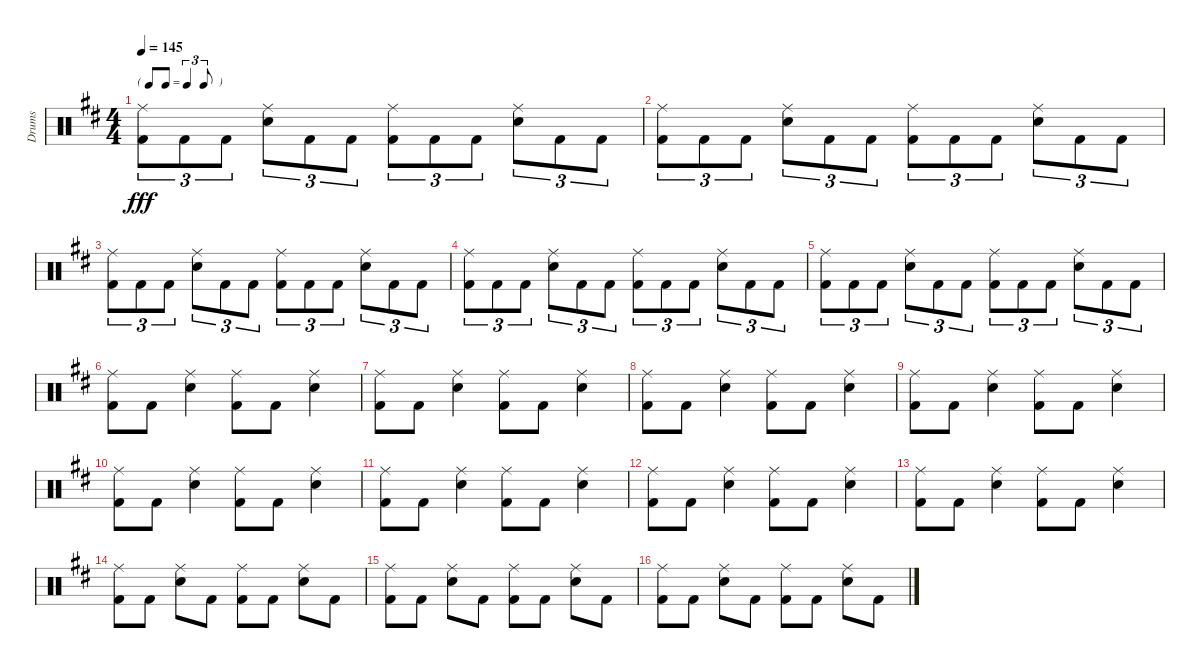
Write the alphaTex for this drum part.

\track ("Drums" "Drums") {instrument percussion}
\staff {score}
\articulation defaults
\ts (4 4)
\tf triplet8th
\tempo 145
\clef neutral
\ks d
("Ride (middle)" "Kick (hit) 2").8{tu (3 2) dy fff} "Kick (hit) 2".8{tu (3 2)} "Kick (hit) 2".8{tu (3 2)} ("Ride (middle)" "Snare (hit) 2").8{tu (3 2)} "Kick (hit) 2".8{tu (3 2)} "Kick (hit) 2".8{tu (3 2)} ("Ride (middle)" "Kick (hit) 2").8{tu (3 2)} "Kick (hit) 2".8{tu (3 2)} "Kick (hit) 2".8{tu (3 2)} ("Ride (middle)" "Snare (hit) 2").8{tu (3 2)} "Kick (hit) 2".8{tu (3 2)} "Kick (hit) 2".8{tu (3 2)} |
("Ride (middle)" "Kick (hit) 2").8{tu (3 2)} "Kick (hit) 2".8{tu (3 2)} "Kick (hit) 2".8{tu (3 2)} ("Ride (middle)" "Snare (hit) 2").8{tu (3 2)} "Kick (hit) 2".8{tu (3 2)} "Kick (hit) 2".8{tu (3 2)} ("Ride (middle)" "Kick (hit) 2").8{tu (3 2)} "Kick (hit) 2".8{tu (3 2)} "Kick (hit) 2".8{tu (3 2)} ("Ride (middle)" "Snare (hit) 2").8{tu (3 2)} "Kick (hit) 2".8{tu (3 2)} "Kick (hit) 2".8{tu (3 2)} |
("Ride (middle)" "Kick (hit) 2").8{tu (3 2)} "Kick (hit) 2".8{tu (3 2)} "Kick (hit) 2".8{tu (3 2)} ("Ride (middle)" "Snare (hit) 2").8{tu (3 2)} "Kick (hit) 2".8{tu (3 2)} "Kick (hit) 2".8{tu (3 2)} ("Ride (middle)" "Kick (hit) 2").8{tu (3 2)} "Kick (hit) 2".8{tu (3 2)} "Kick (hit) 2".8{tu (3 2)} ("Ride (middle)" "Snare (hit) 2").8{tu (3 2)} "Kick (hit) 2".8{tu (3 2)} "Kick (hit) 2".8{tu (3 2)} |
("Ride (middle)" "Kick (hit) 2").8{tu (3 2)} "Kick (hit) 2".8{tu (3 2)} "Kick (hit) 2".8{tu (3 2)} ("Ride (middle)" "Snare (hit) 2").8{tu (3 2)} "Kick (hit) 2".8{tu (3 2)} "Kick (hit) 2".8{tu (3 2)} ("Ride (middle)" "Kick (hit) 2").8{tu (3 2)} "Kick (hit) 2".8{tu (3 2)} "Kick (hit) 2".8{tu (3 2)} ("Ride (middle)" "Snare (hit) 2").8{tu (3 2)} "Kick (hit) 2".8{tu (3 2)} "Kick (hit) 2".8{tu (3 2)} |
("Ride (middle)" "Kick (hit) 2").8{tu (3 2)} "Kick (hit) 2".8{tu (3 2)} "Kick (hit) 2".8{tu (3 2)} ("Ride (middle)" "Snare (hit) 2").8{tu (3 2)} "Kick (hit) 2".8{tu (3 2)} "Kick (hit) 2".8{tu (3 2)} ("Ride (middle)" "Kick (hit) 2").8{tu (3 2)} "Kick (hit) 2".8{tu (3 2)} "Kick (hit) 2".8{tu (3 2)} ("Ride (middle)" "Snare (hit) 2").8{tu (3 2)} "Kick (hit) 2".8{tu (3 2)} "Kick (hit) 2".8{tu (3 2)} |
("Ride (middle)" "Kick (hit) 2").8 "Kick (hit) 2".8 ("Ride (middle)" "Snare (hit) 2").4 ("Ride (middle)" "Kick (hit) 2").8 "Kick (hit) 2".8 ("Ride (middle)" "Snare (hit) 2").4 |
("Ride (middle)" "Kick (hit) 2").8 "Kick (hit) 2".8 ("Ride (middle)" "Snare (hit) 2").4 ("Ride (middle)" "Kick (hit) 2").8 "Kick (hit) 2".8 ("Ride (middle)" "Snare (hit) 2").4 |
("Ride (middle)" "Kick (hit) 2").8 "Kick (hit) 2".8 ("Ride (middle)" "Snare (hit) 2").4 ("Ride (middle)" "Kick (hit) 2").8 "Kick (hit) 2".8 ("Ride (middle)" "Snare (hit) 2").4 |
("Ride (middle)" "Kick (hit) 2").8 "Kick (hit) 2".8 ("Ride (middle)" "Snare (hit) 2").4 ("Ride (middle)" "Kick (hit) 2").8 "Kick (hit) 2".8 ("Ride (middle)" "Snare (hit) 2").4 |
("Ride (middle)" "Kick (hit) 2").8 "Kick (hit) 2".8 ("Ride (middle)" "Snare (hit) 2").4 ("Ride (middle)" "Kick (hit) 2").8 "Kick (hit) 2".8 ("Ride (middle)" "Snare (hit) 2").4 |
("Ride (middle)" "Kick (hit) 2").8 "Kick (hit) 2".8 ("Ride (middle)" "Snare (hit) 2").4 ("Ride (middle)" "Kick (hit) 2").8 "Kick (hit) 2".8 ("Ride (middle)" "Snare (hit) 2").4 |
("Ride (middle)" "Kick (hit) 2").8 "Kick (hit) 2".8 ("Ride (middle)" "Snare (hit) 2").4 ("Ride (middle)" "Kick (hit) 2").8 "Kick (hit) 2".8 ("Ride (middle)" "Snare (hit) 2").4 |
("Ride (middle)" "Kick (hit) 2").8 "Kick (hit) 2".8 ("Ride (middle)" "Snare (hit) 2").4 ("Ride (middle)" "Kick (hit) 2").8 "Kick (hit) 2".8 ("Ride (middle)" "Snare (hit) 2").4 |
("Ride (middle)" "Kick (hit) 2").8 "Kick (hit) 2".8 ("Ride (middle)" "Snare (hit) 2").8 "Kick (hit) 2".8 ("Ride (middle)" "Kick (hit) 2").8 "Kick (hit) 2".8 ("Ride (middle)" "Snare (hit) 2").8 "Kick (hit) 2".8 |
("Ride (middle)" "Kick (hit) 2").8 "Kick (hit) 2".8 ("Ride (middle)" "Snare (hit) 2").8 "Kick (hit) 2".8 ("Ride (middle)" "Kick (hit) 2").8 "Kick (hit) 2".8 ("Ride (middle)" "Snare (hit) 2").8 "Kick (hit) 2".8 |
("Ride (middle)" "Kick (hit) 2").8 "Kick (hit) 2".8 ("Ride (middle)" "Snare (hit) 2").8 "Kick (hit) 2".8 ("Ride (middle)" "Kick (hit) 2").8 "Kick (hit) 2".8 ("Ride (middle)" "Snare (hit) 2").8 "Kick (hit) 2".8
